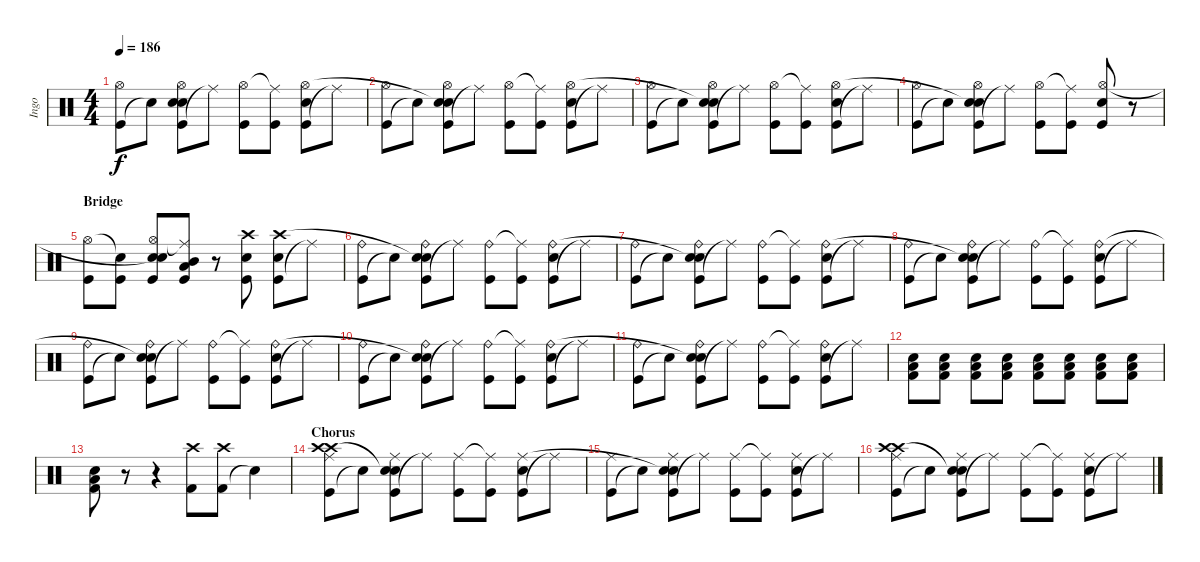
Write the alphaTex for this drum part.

\track ("Ingo" "Ingo") {instrument percussion}
\staff {score}
\articulation defaults
\ts (4 4)
\tempo 186
\clef neutral
\ks c
("Kick (hit)" "Hi-Hat (open)").8{dy f} "Snare (hit)"{t}.8 ("Kick (hit)" "Snare (hit) 2" "Snare (hit)"{t} "Hi-Hat (open)").8 "Ride (middle)"{t}.8 ("Kick (hit)" "Hi-Hat (open)").8 ("Kick (hit)" "Ride (middle)"{t}).8 ("Kick (hit)" "Snare (hit) 2" "Hi-Hat (open)").8 "Ride (middle)"{t}.8 |
("Kick (hit)" "Hi-Hat (open)").8 "Snare (hit)"{t}.8 ("Kick (hit)" "Snare (hit) 2" "Snare (hit)"{t} "Hi-Hat (open)").8 "Ride (middle)"{t}.8 ("Kick (hit)" "Hi-Hat (open)").8 ("Kick (hit)" "Ride (middle)"{t}).8 ("Kick (hit)" "Snare (hit) 2" "Hi-Hat (open)").8 "Ride (middle)"{t}.8 |
("Kick (hit)" "Hi-Hat (open)").8 "Snare (hit)"{t}.8 ("Kick (hit)" "Snare (hit) 2" "Snare (hit)"{t} "Hi-Hat (open)").8 "Ride (middle)"{t}.8 ("Kick (hit)" "Hi-Hat (open)").8 ("Kick (hit)" "Ride (middle)"{t}).8 ("Kick (hit)" "Snare (hit) 2" "Hi-Hat (open)").8 "Ride (middle)"{t}.8 |
("Kick (hit)" "Hi-Hat (open)").8 "Snare (hit)"{t}.8 ("Kick (hit)" "Snare (hit) 2" "Snare (hit)"{t} "Hi-Hat (open)").8 "Ride (middle)"{t}.8 ("Kick (hit)" "Hi-Hat (open)").8 ("Kick (hit)" "Ride (middle)"{t}).8 ("Kick (hit)" "Snare (hit) 2" "Hi-Hat (open)").8 r.8 |
\section ("" "Bridge")
("Kick (hit)" "Hi-Hat (open)").8 ("Kick (hit)" "Snare (hit)"{t}).8 ("Kick (hit)" "Snare (hit) 2" "Snare (hit)"{t} "Hi-Hat (open)").8 ("Kick (hit)" "Mid Tom (hit)" "Low Floor Tom (hit)" "Ride (middle)"{t}).8 r.8 ("Kick (hit)" "Snare (hit) 2" "Crash high (hit)").8 ("Kick (hit)" "Snare (hit) 2" "Crash high (hit)").8 "Ride (middle)"{t}.8 |
("Kick (hit)" "Ride (bell)").8 "Snare (hit)"{t}.8 ("Kick (hit)" "Snare (hit) 2" "Snare (hit)"{t} "Ride (bell)").8 "Ride (middle)"{t}.8 ("Kick (hit)" "Ride (bell)").8 ("Kick (hit)" "Ride (middle)"{t}).8 ("Kick (hit)" "Snare (hit) 2" "Ride (bell)").8 "Ride (middle)"{t}.8 |
("Kick (hit)" "Ride (bell)").8 "Snare (hit)"{t}.8 ("Kick (hit)" "Snare (hit) 2" "Snare (hit)"{t} "Ride (bell)").8 "Ride (middle)"{t}.8 ("Kick (hit)" "Ride (bell)").8 ("Kick (hit)" "Ride (middle)"{t}).8 ("Kick (hit)" "Snare (hit) 2" "Ride (bell)").8 "Ride (middle)"{t}.8 |
("Kick (hit)" "Ride (bell)").8 "Snare (hit)"{t}.8 ("Kick (hit)" "Snare (hit) 2" "Snare (hit)"{t} "Ride (bell)").8 "Ride (middle)"{t}.8 ("Kick (hit)" "Ride (bell)").8 ("Kick (hit)" "Ride (middle)"{t}).8 ("Kick (hit)" "Snare (hit) 2" "Ride (bell)").8 "Ride (middle)"{t}.8 |
("Kick (hit)" "Ride (bell)").8 "Snare (hit)"{t}.8 ("Kick (hit)" "Snare (hit) 2" "Snare (hit)"{t} "Ride (bell)").8 "Ride (middle)"{t}.8 ("Kick (hit)" "Ride (bell)").8 ("Kick (hit)" "Ride (middle)"{t}).8 ("Kick (hit)" "Snare (hit) 2" "Ride (bell)").8 "Ride (middle)"{t}.8 |
("Kick (hit)" "Ride (bell)").8 "Snare (hit)"{t}.8 ("Kick (hit)" "Snare (hit) 2" "Snare (hit)"{t} "Ride (bell)").8 "Ride (middle)"{t}.8 ("Kick (hit)" "Ride (bell)").8 ("Kick (hit)" "Ride (middle)"{t}).8 ("Kick (hit)" "Snare (hit) 2" "Ride (bell)").8 "Ride (middle)"{t}.8 |
("Kick (hit)" "Ride (bell)").8 "Snare (hit)"{t}.8 ("Kick (hit)" "Snare (hit) 2" "Snare (hit)"{t} "Ride (bell)").8 "Ride (middle)"{t}.8 ("Kick (hit)" "Ride (bell)").8 ("Kick (hit)" "Ride (middle)"{t}).8 ("Kick (hit)" "Snare (hit) 2" "Ride (bell)").8 "Ride (middle)"{t}.8 |
("Kick (hit) 2" "Low Tom (hit)" "Snare (hit) 2").8 ("Kick (hit) 2" "Low Tom (hit)" "Snare (hit) 2").8 ("Kick (hit) 2" "Low Tom (hit)" "Snare (hit) 2").8 ("Kick (hit) 2" "Low Tom (hit)" "Snare (hit) 2").8 ("Kick (hit) 2" "Low Tom (hit)" "Snare (hit) 2").8 ("Kick (hit) 2" "Low Tom (hit)" "Snare (hit) 2").8 ("Kick (hit) 2" "Low Tom (hit)" "Snare (hit) 2").8 ("Kick (hit) 2" "Low Tom (hit)" "Snare (hit) 2").8 |
("Kick (hit) 2" "Low Tom (hit)" "Snare (hit) 2").8 r.8 r.4 ("Kick (hit) 2" "Crash high (hit)").8 ("Kick (hit) 2" "Crash high (hit)").8 "Snare (hit)"{t}.4 |
\section ("" "Chorus")
("Kick (hit)" "Ride (middle)" "Crash high (hit)" "Crash high (hit)").8 "Snare (hit)"{t}.8 ("Kick (hit)" "Snare (hit) 2" "Snare (hit)"{t} "Ride (middle)").8 "Ride (middle)"{t}.8 ("Kick (hit)" "Ride (middle)").8 ("Kick (hit)" "Ride (middle)"{t}).8 ("Kick (hit)" "Snare (hit) 2" "Ride (middle)").8 "Ride (middle)"{t}.8 |
("Kick (hit)" "Ride (middle)").8 "Snare (hit)"{t}.8 ("Kick (hit)" "Snare (hit) 2" "Snare (hit)"{t} "Ride (middle)").8 "Ride (middle)"{t}.8 ("Kick (hit)" "Ride (middle)").8 ("Kick (hit)" "Ride (middle)"{t}).8 ("Kick (hit)" "Snare (hit) 2" "Ride (middle)").8 "Ride (middle)"{t}.8 |
("Kick (hit)" "Ride (middle)" "Crash high (hit)" "Crash high (hit)").8 "Snare (hit)"{t}.8 ("Kick (hit)" "Snare (hit) 2" "Snare (hit)"{t} "Ride (middle)").8 "Ride (middle)"{t}.8 ("Kick (hit)" "Ride (middle)").8 ("Kick (hit)" "Ride (middle)"{t}).8 ("Kick (hit)" "Snare (hit) 2" "Ride (middle)").8 "Ride (middle)"{t}.8
